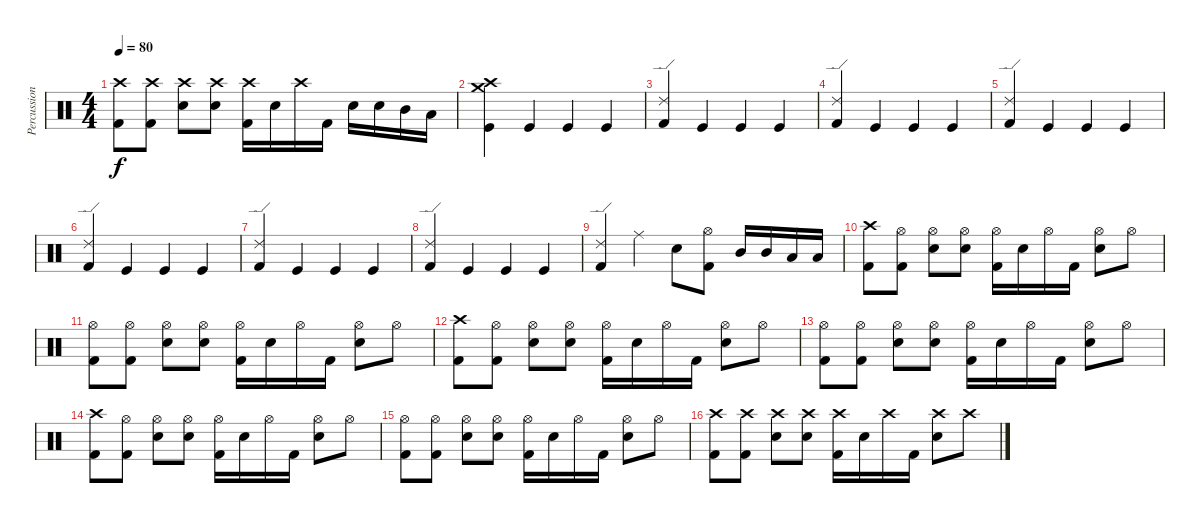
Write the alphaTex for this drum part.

\track ("Percussion" "Percussion") {instrument percussion}
\staff {score}
\articulation defaults
\ts (4 4)
\tempo 80
\clef neutral
\ks c
("Kick (hit) 2" "Crash high (hit)").8{dy f} ("Kick (hit) 2" "Crash high (hit)").8 ("Electric Snare (hit)" "Crash high (hit)").8 ("Electric Snare (hit)" "Crash high (hit)").8 ("Kick (hit) 2" "Crash high (hit)").16 "Electric Snare (hit)".16 "Crash high (hit)".16 "Kick (hit) 2".16 "Electric Snare (hit)".16 "Electric Snare (hit)".16 "Mid Tom (hit)".16 "Low Tom (hit)".16 |
("Kick (hit)" "Crash high (hit)" "Crash medium (hit)").4 "Kick (hit)".4 "Kick (hit)".4 "Kick (hit)".4 |
("Kick (hit) 2" "Ride (edge) 2").4 "Kick (hit)".4 "Kick (hit)".4 "Kick (hit)".4 |
("Kick (hit) 2" "Ride (edge) 2").4 "Kick (hit)".4 "Kick (hit)".4 "Kick (hit)".4 |
("Kick (hit) 2" "Ride (edge) 2").4 "Kick (hit)".4 "Kick (hit)".4 "Kick (hit)".4 |
("Kick (hit) 2" "Ride (edge) 2").4 "Kick (hit)".4 "Kick (hit)".4 "Kick (hit)".4 |
("Kick (hit) 2" "Ride (edge) 2").4 "Kick (hit)".4 "Kick (hit)".4 "Kick (hit)".4 |
("Kick (hit) 2" "Ride (edge) 2").4 "Kick (hit)".4 "Kick (hit)".4 "Kick (hit)".4 |
("Kick (hit) 2" "Ride (edge) 2").4 "Ride (middle)".4 "Electric Snare (hit)".8 ("Kick (hit) 2" "Hi-Hat (open)").8 "Mid Tom (hit)".16 "Mid Tom (hit)".16 "Low Tom (hit)".16 "Low Tom (hit)".16 |
("Kick (hit) 2" "Crash high (hit)").8 ("Kick (hit) 2" "Hi-Hat (open)").8 ("Electric Snare (hit)" "Hi-Hat (open)").8 ("Electric Snare (hit)" "Hi-Hat (open)").8 ("Kick (hit) 2" "Hi-Hat (open)").16 "Electric Snare (hit)".16 "Hi-Hat (open)".16 "Kick (hit) 2".16 ("Electric Snare (hit)" "Hi-Hat (open)").8 "Hi-Hat (open)".8 |
("Kick (hit) 2" "Hi-Hat (open)").8 ("Kick (hit) 2" "Hi-Hat (open)").8 ("Electric Snare (hit)" "Hi-Hat (open)").8 ("Electric Snare (hit)" "Hi-Hat (open)").8 ("Kick (hit) 2" "Hi-Hat (open)").16 "Electric Snare (hit)".16 "Hi-Hat (open)".16 "Kick (hit) 2".16 ("Electric Snare (hit)" "Hi-Hat (open)").8 "Hi-Hat (open)".8 |
("Kick (hit) 2" "Crash high (hit)").8 ("Kick (hit) 2" "Hi-Hat (open)").8 ("Electric Snare (hit)" "Hi-Hat (open)").8 ("Electric Snare (hit)" "Hi-Hat (open)").8 ("Kick (hit) 2" "Hi-Hat (open)").16 "Electric Snare (hit)".16 "Hi-Hat (open)".16 "Kick (hit) 2".16 ("Electric Snare (hit)" "Hi-Hat (open)").8 "Hi-Hat (open)".8 |
("Kick (hit) 2" "Hi-Hat (open)").8 ("Kick (hit) 2" "Hi-Hat (open)").8 ("Electric Snare (hit)" "Hi-Hat (open)").8 ("Electric Snare (hit)" "Hi-Hat (open)").8 ("Kick (hit) 2" "Hi-Hat (open)").16 "Electric Snare (hit)".16 "Hi-Hat (open)".16 "Kick (hit) 2".16 ("Electric Snare (hit)" "Hi-Hat (open)").8 "Hi-Hat (open)".8 |
("Kick (hit) 2" "Crash high (hit)").8 ("Kick (hit) 2" "Hi-Hat (open)").8 ("Electric Snare (hit)" "Hi-Hat (open)").8 ("Electric Snare (hit)" "Hi-Hat (open)").8 ("Kick (hit) 2" "Hi-Hat (open)").16 "Electric Snare (hit)".16 "Hi-Hat (open)".16 "Kick (hit) 2".16 ("Electric Snare (hit)" "Hi-Hat (open)").8 "Hi-Hat (open)".8 |
("Kick (hit) 2" "Hi-Hat (open)").8 ("Kick (hit) 2" "Hi-Hat (open)").8 ("Electric Snare (hit)" "Hi-Hat (open)").8 ("Electric Snare (hit)" "Hi-Hat (open)").8 ("Kick (hit) 2" "Hi-Hat (open)").16 "Electric Snare (hit)".16 "Hi-Hat (open)".16 "Kick (hit) 2".16 ("Electric Snare (hit)" "Hi-Hat (open)").8 "Hi-Hat (open)".8 |
("Kick (hit) 2" "Crash high (hit)").8 ("Kick (hit) 2" "Crash high (hit)").8 ("Electric Snare (hit)" "Crash high (hit)").8 ("Electric Snare (hit)" "Crash high (hit)").8 ("Kick (hit) 2" "Crash high (hit)").16 "Electric Snare (hit)".16 "Crash high (hit)".16 "Kick (hit) 2".16 ("Electric Snare (hit)" "Crash high (hit)").8 "Crash high (hit)".8
